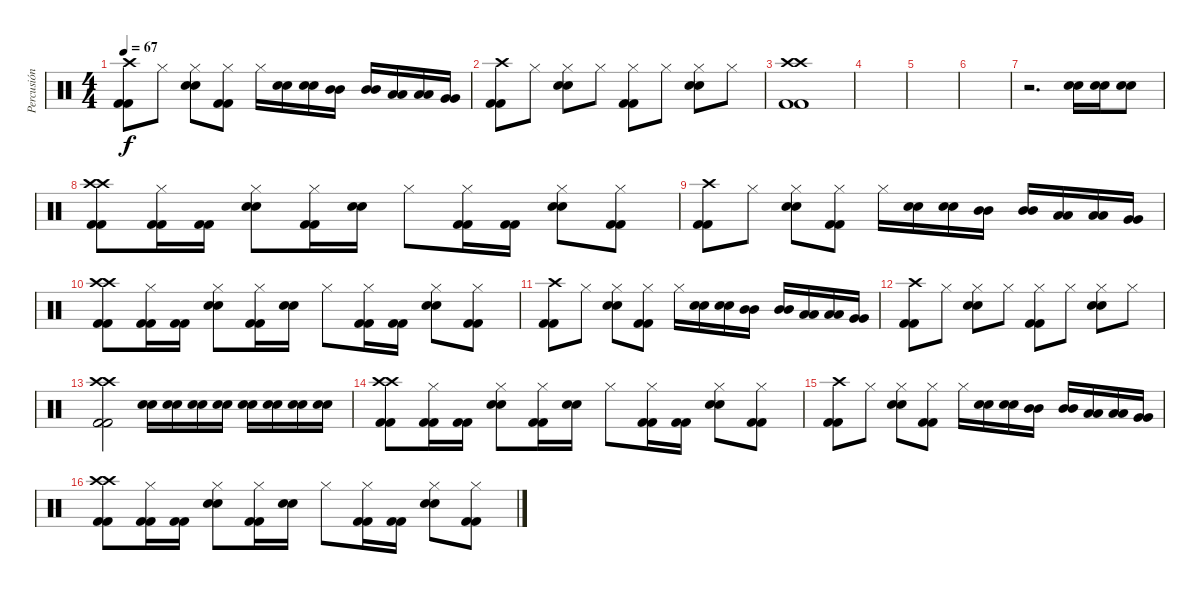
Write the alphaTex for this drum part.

\track ("Percusión" "Percusión") {instrument percussion}
\staff {score}
\articulation defaults
\ts (4 4)
\tempo 67
\clef neutral
\ks c
("Crash high (hit)" "Kick (hit) 2" "Kick (hit) 2").8{dy f} "Hi-Hat (closed)".8 ("Hi-Hat (closed)" "Electric Snare (hit)" "Electric Snare (hit)").8 ("Hi-Hat (closed)" "Kick (hit) 2" "Kick (hit) 2").8 "Hi-Hat (closed)".16 ("Electric Snare (hit)" "Electric Snare (hit)").16 ("Electric Snare (hit)" "Electric Snare (hit)").16 ("Mid Tom (hit)" "Mid Tom (hit)").16 ("Mid Tom (hit)" "Mid Tom (hit)").16 ("Low Tom (hit)" "Low Tom (hit)").16 ("Low Tom (hit)" "Low Tom (hit)").16 ("Very Low Tom (hit)" "Very Low Tom (hit)").16 |
("Crash high (hit)" "Kick (hit) 2" "Kick (hit) 2").8 "Hi-Hat (closed)".8 ("Hi-Hat (closed)" "Electric Snare (hit)" "Electric Snare (hit)").8 "Hi-Hat (closed)".8 ("Hi-Hat (closed)" "Kick (hit) 2" "Kick (hit) 2").8 "Hi-Hat (closed)".8 ("Hi-Hat (closed)" "Electric Snare (hit)" "Electric Snare (hit)").8 "Hi-Hat (closed)".8 |
("Crash high (hit)" "Crash high (hit)" "Kick (hit) 2" "Kick (hit) 2").1 |
|
|
|
r.2{d} ("Electric Snare (hit)" "Electric Snare (hit)").16 ("Electric Snare (hit)" "Electric Snare (hit)").16 ("Electric Snare (hit)" "Electric Snare (hit)").8 |
("Crash high (hit)" "Crash high (hit)" "Kick (hit) 2" "Kick (hit) 2").8 ("Hi-Hat (closed)" "Kick (hit) 2" "Kick (hit) 2").16 ("Kick (hit) 2" "Kick (hit) 2").16 ("Hi-Hat (closed)" "Electric Snare (hit)" "Electric Snare (hit)").8 ("Hi-Hat (closed)" "Kick (hit) 2" "Kick (hit) 2").16 ("Electric Snare (hit)" "Electric Snare (hit)").16 "Hi-Hat (closed)".8 ("Hi-Hat (closed)" "Kick (hit) 2" "Kick (hit) 2").16 ("Kick (hit) 2" "Kick (hit) 2").16 ("Hi-Hat (closed)" "Electric Snare (hit)" "Electric Snare (hit)").8 ("Hi-Hat (closed)" "Kick (hit) 2" "Kick (hit) 2").8 |
("Crash high (hit)" "Kick (hit) 2" "Kick (hit) 2").8 "Hi-Hat (closed)".8 ("Hi-Hat (closed)" "Electric Snare (hit)" "Electric Snare (hit)").8 ("Hi-Hat (closed)" "Kick (hit) 2" "Kick (hit) 2").8 "Hi-Hat (closed)".16 ("Electric Snare (hit)" "Electric Snare (hit)").16 ("Electric Snare (hit)" "Electric Snare (hit)").16 ("Mid Tom (hit)" "Mid Tom (hit)").16 ("Mid Tom (hit)" "Mid Tom (hit)").16 ("Low Tom (hit)" "Low Tom (hit)").16 ("Low Tom (hit)" "Low Tom (hit)").16 ("Very Low Tom (hit)" "Very Low Tom (hit)").16 |
("Crash high (hit)" "Crash high (hit)" "Kick (hit) 2" "Kick (hit) 2").8 ("Hi-Hat (closed)" "Kick (hit) 2" "Kick (hit) 2").16 ("Kick (hit) 2" "Kick (hit) 2").16 ("Hi-Hat (closed)" "Electric Snare (hit)" "Electric Snare (hit)").8 ("Hi-Hat (closed)" "Kick (hit) 2" "Kick (hit) 2").16 ("Electric Snare (hit)" "Electric Snare (hit)").16 "Hi-Hat (closed)".8 ("Hi-Hat (closed)" "Kick (hit) 2" "Kick (hit) 2").16 ("Kick (hit) 2" "Kick (hit) 2").16 ("Hi-Hat (closed)" "Electric Snare (hit)" "Electric Snare (hit)").8 ("Hi-Hat (closed)" "Kick (hit) 2" "Kick (hit) 2").8 |
("Crash high (hit)" "Kick (hit) 2" "Kick (hit) 2").8 "Hi-Hat (closed)".8 ("Hi-Hat (closed)" "Electric Snare (hit)" "Electric Snare (hit)").8 ("Hi-Hat (closed)" "Kick (hit) 2" "Kick (hit) 2").8 "Hi-Hat (closed)".16 ("Electric Snare (hit)" "Electric Snare (hit)").16 ("Electric Snare (hit)" "Electric Snare (hit)").16 ("Mid Tom (hit)" "Mid Tom (hit)").16 ("Mid Tom (hit)" "Mid Tom (hit)").16 ("Low Tom (hit)" "Low Tom (hit)").16 ("Low Tom (hit)" "Low Tom (hit)").16 ("Very Low Tom (hit)" "Very Low Tom (hit)").16 |
("Crash high (hit)" "Kick (hit) 2" "Kick (hit) 2").8 "Hi-Hat (closed)".8 ("Hi-Hat (closed)" "Electric Snare (hit)" "Electric Snare (hit)").8 "Hi-Hat (closed)".8 ("Hi-Hat (closed)" "Kick (hit) 2" "Kick (hit) 2").8 "Hi-Hat (closed)".8 ("Hi-Hat (closed)" "Electric Snare (hit)" "Electric Snare (hit)").8 "Hi-Hat (closed)".8 |
("Crash high (hit)" "Crash high (hit)" "Kick (hit) 2" "Kick (hit) 2").2 ("Electric Snare (hit)" "Electric Snare (hit)").16 ("Electric Snare (hit)" "Electric Snare (hit)").16 ("Electric Snare (hit)" "Electric Snare (hit)").16 ("Electric Snare (hit)" "Electric Snare (hit)").16 ("Electric Snare (hit)" "Electric Snare (hit)").16 ("Electric Snare (hit)" "Electric Snare (hit)").16 ("Electric Snare (hit)" "Electric Snare (hit)").16 ("Electric Snare (hit)" "Electric Snare (hit)").16 |
("Crash high (hit)" "Crash high (hit)" "Kick (hit) 2" "Kick (hit) 2").8 ("Hi-Hat (closed)" "Kick (hit) 2" "Kick (hit) 2").16 ("Kick (hit) 2" "Kick (hit) 2").16 ("Hi-Hat (closed)" "Electric Snare (hit)" "Electric Snare (hit)").8 ("Hi-Hat (closed)" "Kick (hit) 2" "Kick (hit) 2").16 ("Electric Snare (hit)" "Electric Snare (hit)").16 "Hi-Hat (closed)".8 ("Hi-Hat (closed)" "Kick (hit) 2" "Kick (hit) 2").16 ("Kick (hit) 2" "Kick (hit) 2").16 ("Hi-Hat (closed)" "Electric Snare (hit)" "Electric Snare (hit)").8 ("Hi-Hat (closed)" "Kick (hit) 2" "Kick (hit) 2").8 |
("Crash high (hit)" "Kick (hit) 2" "Kick (hit) 2").8 "Hi-Hat (closed)".8 ("Hi-Hat (closed)" "Electric Snare (hit)" "Electric Snare (hit)").8 ("Hi-Hat (closed)" "Kick (hit) 2" "Kick (hit) 2").8 "Hi-Hat (closed)".16 ("Electric Snare (hit)" "Electric Snare (hit)").16 ("Electric Snare (hit)" "Electric Snare (hit)").16 ("Mid Tom (hit)" "Mid Tom (hit)").16 ("Mid Tom (hit)" "Mid Tom (hit)").16 ("Low Tom (hit)" "Low Tom (hit)").16 ("Low Tom (hit)" "Low Tom (hit)").16 ("Very Low Tom (hit)" "Very Low Tom (hit)").16 |
("Crash high (hit)" "Crash high (hit)" "Kick (hit) 2" "Kick (hit) 2").8 ("Hi-Hat (closed)" "Kick (hit) 2" "Kick (hit) 2").16 ("Kick (hit) 2" "Kick (hit) 2").16 ("Hi-Hat (closed)" "Electric Snare (hit)" "Electric Snare (hit)").8 ("Hi-Hat (closed)" "Kick (hit) 2" "Kick (hit) 2").16 ("Electric Snare (hit)" "Electric Snare (hit)").16 "Hi-Hat (closed)".8 ("Hi-Hat (closed)" "Kick (hit) 2" "Kick (hit) 2").16 ("Kick (hit) 2" "Kick (hit) 2").16 ("Hi-Hat (closed)" "Electric Snare (hit)" "Electric Snare (hit)").8 ("Hi-Hat (closed)" "Kick (hit) 2" "Kick (hit) 2").8
